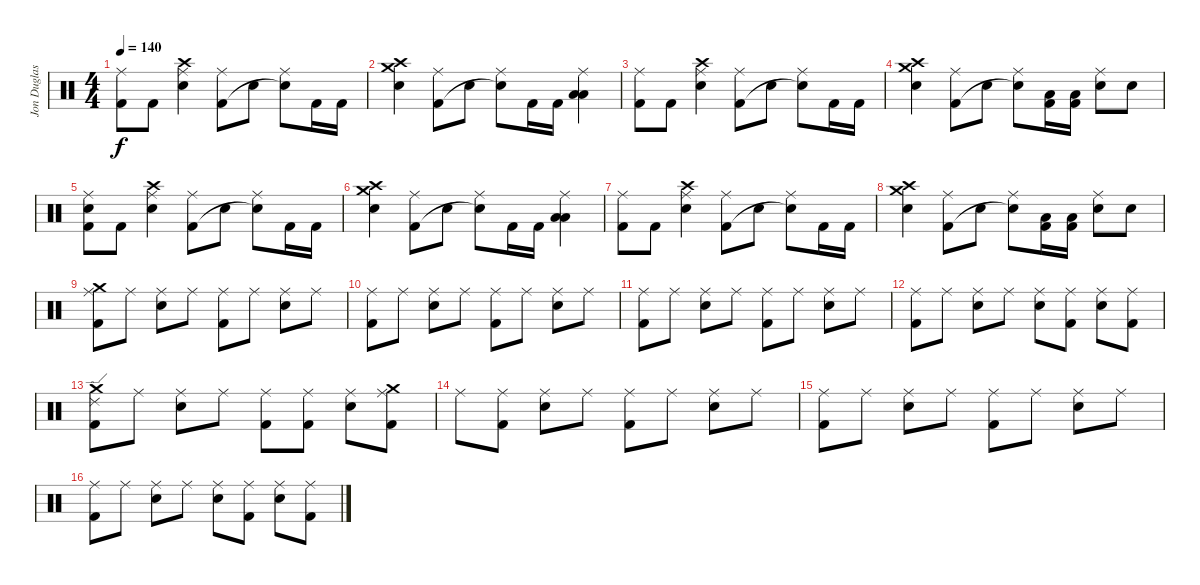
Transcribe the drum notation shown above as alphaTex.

\track ("Jon Duglas (Drums)" "Jon Duglas") {instrument percussion}
\staff {score}
\articulation defaults
\ts (4 4)
\tempo 140
\clef neutral
\ks c
("Ride (middle)" "Kick (hit) 2").8{dy f} "Kick (hit) 2".8 ("Crash high (hit)" "Ride (middle)" "Electric Snare (hit)").4 ("Ride (middle)" "Kick (hit) 2").8 "Electric Snare (hit)".8 ("Ride (middle)" "Snare (hit)"{t}).8 "Kick (hit) 2".16 "Kick (hit) 2".16 |
("Crash high (hit)" "Electric Snare (hit)" "Crash medium (hit)").4 ("Ride (middle)" "Kick (hit) 2").8 "Electric Snare (hit)".8 ("Ride (middle)" "Snare (hit)"{t}).8 "Kick (hit) 2".16 "Kick (hit) 2".16 ("Ride (middle)" "Low Tom (hit)" "Low Tom (hit)").4 |
("Ride (middle)" "Kick (hit) 2").8 "Kick (hit) 2".8 ("Crash high (hit)" "Ride (middle)" "Electric Snare (hit)").4 ("Ride (middle)" "Kick (hit) 2").8 "Electric Snare (hit)".8 ("Ride (middle)" "Snare (hit)"{t}).8 "Kick (hit) 2".16 "Kick (hit) 2".16 |
("Crash high (hit)" "Electric Snare (hit)" "Crash medium (hit)").4 ("Ride (middle)" "Kick (hit) 2").8 "Electric Snare (hit)".8 ("Ride (middle)" "Snare (hit)"{t}).8 ("Low Floor Tom (hit)" "Kick (hit) 2").16 ("Low Floor Tom (hit)" "Kick (hit) 2").16 ("Ride (middle)" "Electric Snare (hit)").8 "Electric Snare (hit)".8 |
("Ride (middle)" "Kick (hit) 2" "Electric Snare (hit)").8 "Kick (hit) 2".8 ("Crash high (hit)" "Ride (middle)" "Electric Snare (hit)").4 ("Ride (middle)" "Kick (hit) 2").8 "Electric Snare (hit)".8 ("Ride (middle)" "Snare (hit)"{t}).8 "Kick (hit) 2".16 "Kick (hit) 2".16 |
("Crash high (hit)" "Electric Snare (hit)" "Crash medium (hit)").4 ("Ride (middle)" "Kick (hit) 2").8 "Electric Snare (hit)".8 ("Ride (middle)" "Snare (hit)"{t}).8 "Kick (hit) 2".16 "Kick (hit) 2".16 ("Ride (middle)" "Low Tom (hit)" "Low Tom (hit)").4 |
("Ride (middle)" "Kick (hit) 2").8 "Kick (hit) 2".8 ("Crash high (hit)" "Ride (middle)" "Electric Snare (hit)").4 ("Ride (middle)" "Kick (hit) 2").8 "Electric Snare (hit)".8 ("Ride (middle)" "Snare (hit)"{t}).8 "Kick (hit) 2".16 "Kick (hit) 2".16 |
("Crash high (hit)" "Electric Snare (hit)" "Crash medium (hit)").4 ("Ride (middle)" "Kick (hit) 2").8 "Electric Snare (hit)".8 ("Ride (middle)" "Snare (hit)"{t}).8 ("Low Floor Tom (hit)" "Kick (hit) 2").16 ("Low Floor Tom (hit)" "Kick (hit) 2").16 ("Ride (middle)" "Electric Snare (hit)").8 "Electric Snare (hit)".8 |
("Ride (middle)" "Kick (hit) 2" "Crash medium (hit)").8 "Ride (middle)".8 ("Ride (middle)" "Electric Snare (hit)").8 "Ride (middle)".8 ("Ride (middle)" "Kick (hit) 2").8 "Ride (middle)".8 ("Ride (middle)" "Electric Snare (hit)").8 "Ride (middle)".8 |
("Ride (middle)" "Kick (hit) 2").8 "Ride (middle)".8 ("Ride (middle)" "Electric Snare (hit)").8 "Ride (middle)".8 ("Ride (middle)" "Kick (hit) 2").8 "Ride (middle)".8 ("Ride (middle)" "Electric Snare (hit)").8 "Ride (middle)".8 |
("Ride (middle)" "Kick (hit) 2").8 "Ride (middle)".8 ("Ride (middle)" "Electric Snare (hit)").8 "Ride (middle)".8 ("Ride (middle)" "Kick (hit) 2").8 "Ride (middle)".8 ("Ride (middle)" "Electric Snare (hit)").8 "Ride (middle)".8 |
("Ride (middle)" "Kick (hit) 2").8 "Ride (middle)".8 ("Ride (middle)" "Electric Snare (hit)").8 "Ride (middle)".8 ("Ride (middle)" "Electric Snare (hit)").8 ("Ride (middle)" "Kick (hit) 2").8 ("Ride (middle)" "Electric Snare (hit)").8 ("Ride (middle)" "Kick (hit) 2").8 |
("Ride (edge) 2" "Kick (hit) 2" "Crash medium (hit)").8 "Ride (middle)".8 ("Ride (middle)" "Electric Snare (hit)").8 "Ride (middle)".8 ("Ride (middle)" "Kick (hit) 2").8 ("Ride (middle)" "Kick (hit) 2").8 ("Ride (middle)" "Electric Snare (hit)").8 ("Ride (middle)" "Kick (hit) 2" "Crash medium (hit)").8 |
"Ride (middle)".8 ("Ride (middle)" "Kick (hit) 2").8 ("Ride (middle)" "Electric Snare (hit)").8 "Ride (middle)".8 ("Ride (middle)" "Kick (hit) 2").8 "Ride (middle)".8 ("Ride (middle)" "Electric Snare (hit)").8 "Ride (middle)".8 |
("Ride (middle)" "Kick (hit) 2").8 "Ride (middle)".8 ("Ride (middle)" "Electric Snare (hit)").8 "Ride (middle)".8 ("Ride (middle)" "Kick (hit) 2").8 "Ride (middle)".8 ("Ride (middle)" "Electric Snare (hit)").8 "Ride (middle)".8 |
("Ride (middle)" "Kick (hit) 2").8 "Ride (middle)".8 ("Ride (middle)" "Electric Snare (hit)").8 "Ride (middle)".8 ("Ride (middle)" "Electric Snare (hit)").8 ("Ride (middle)" "Kick (hit) 2").8 ("Ride (middle)" "Electric Snare (hit)").8 ("Ride (middle)" "Kick (hit) 2").8
